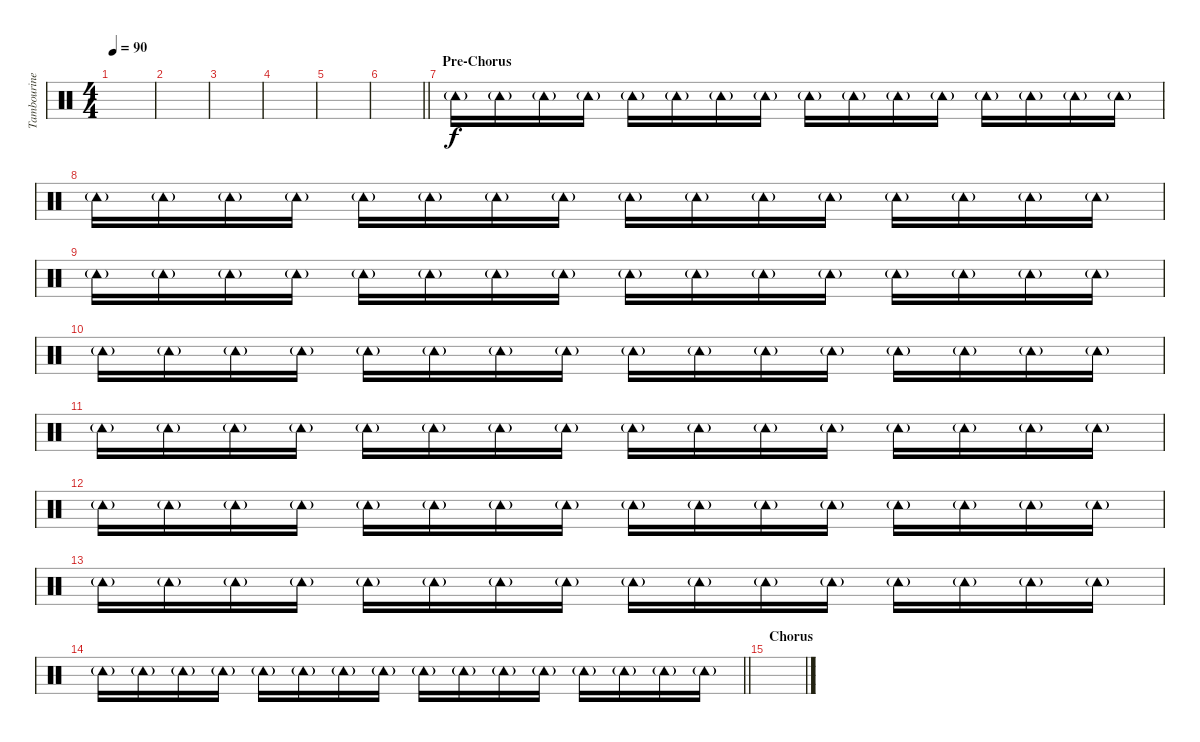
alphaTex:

\track ("Tambourine" "Tambourine") {instrument percussion}
\staff {score}
\articulation defaults
\ts (4 4)
\tempo 90
\clef neutral
\ks c
|
|
|
|
|
\barLineRight lightlight
|
\section ("" "Pre-Chorus")
"Tambourine (hit)"{g}.16 "Tambourine (hit)"{g}.16 "Tambourine (hit)"{g}.16 "Tambourine (hit)"{g}.16 "Tambourine (hit)"{g}.16 "Tambourine (hit)"{g}.16 "Tambourine (hit)"{g}.16 "Tambourine (hit)"{g}.16 "Tambourine (hit)"{g}.16 "Tambourine (hit)"{g}.16 "Tambourine (hit)"{g}.16 "Tambourine (hit)"{g}.16 "Tambourine (hit)"{g}.16 "Tambourine (hit)"{g}.16 "Tambourine (hit)"{g}.16 "Tambourine (hit)"{g}.16 |
"Tambourine (hit)"{g}.16 "Tambourine (hit)"{g}.16 "Tambourine (hit)"{g}.16 "Tambourine (hit)"{g}.16 "Tambourine (hit)"{g}.16 "Tambourine (hit)"{g}.16 "Tambourine (hit)"{g}.16 "Tambourine (hit)"{g}.16 "Tambourine (hit)"{g}.16 "Tambourine (hit)"{g}.16 "Tambourine (hit)"{g}.16 "Tambourine (hit)"{g}.16 "Tambourine (hit)"{g}.16 "Tambourine (hit)"{g}.16 "Tambourine (hit)"{g}.16 "Tambourine (hit)"{g}.16 |
"Tambourine (hit)"{g}.16 "Tambourine (hit)"{g}.16 "Tambourine (hit)"{g}.16 "Tambourine (hit)"{g}.16 "Tambourine (hit)"{g}.16 "Tambourine (hit)"{g}.16 "Tambourine (hit)"{g}.16 "Tambourine (hit)"{g}.16 "Tambourine (hit)"{g}.16 "Tambourine (hit)"{g}.16 "Tambourine (hit)"{g}.16 "Tambourine (hit)"{g}.16 "Tambourine (hit)"{g}.16 "Tambourine (hit)"{g}.16 "Tambourine (hit)"{g}.16 "Tambourine (hit)"{g}.16 |
"Tambourine (hit)"{g}.16 "Tambourine (hit)"{g}.16 "Tambourine (hit)"{g}.16 "Tambourine (hit)"{g}.16 "Tambourine (hit)"{g}.16 "Tambourine (hit)"{g}.16 "Tambourine (hit)"{g}.16 "Tambourine (hit)"{g}.16 "Tambourine (hit)"{g}.16 "Tambourine (hit)"{g}.16 "Tambourine (hit)"{g}.16 "Tambourine (hit)"{g}.16 "Tambourine (hit)"{g}.16 "Tambourine (hit)"{g}.16 "Tambourine (hit)"{g}.16 "Tambourine (hit)"{g}.16 |
"Tambourine (hit)"{g}.16 "Tambourine (hit)"{g}.16 "Tambourine (hit)"{g}.16 "Tambourine (hit)"{g}.16 "Tambourine (hit)"{g}.16 "Tambourine (hit)"{g}.16 "Tambourine (hit)"{g}.16 "Tambourine (hit)"{g}.16 "Tambourine (hit)"{g}.16 "Tambourine (hit)"{g}.16 "Tambourine (hit)"{g}.16 "Tambourine (hit)"{g}.16 "Tambourine (hit)"{g}.16 "Tambourine (hit)"{g}.16 "Tambourine (hit)"{g}.16 "Tambourine (hit)"{g}.16 |
"Tambourine (hit)"{g}.16 "Tambourine (hit)"{g}.16 "Tambourine (hit)"{g}.16 "Tambourine (hit)"{g}.16 "Tambourine (hit)"{g}.16 "Tambourine (hit)"{g}.16 "Tambourine (hit)"{g}.16 "Tambourine (hit)"{g}.16 "Tambourine (hit)"{g}.16 "Tambourine (hit)"{g}.16 "Tambourine (hit)"{g}.16 "Tambourine (hit)"{g}.16 "Tambourine (hit)"{g}.16 "Tambourine (hit)"{g}.16 "Tambourine (hit)"{g}.16 "Tambourine (hit)"{g}.16 |
"Tambourine (hit)"{g}.16 "Tambourine (hit)"{g}.16 "Tambourine (hit)"{g}.16 "Tambourine (hit)"{g}.16 "Tambourine (hit)"{g}.16 "Tambourine (hit)"{g}.16 "Tambourine (hit)"{g}.16 "Tambourine (hit)"{g}.16 "Tambourine (hit)"{g}.16 "Tambourine (hit)"{g}.16 "Tambourine (hit)"{g}.16 "Tambourine (hit)"{g}.16 "Tambourine (hit)"{g}.16 "Tambourine (hit)"{g}.16 "Tambourine (hit)"{g}.16 "Tambourine (hit)"{g}.16 |
\barLineRight lightlight "Tambourine (hit)"{g}.16 "Tambourine (hit)"{g}.16 "Tambourine (hit)"{g}.16 "Tambourine (hit)"{g}.16 "Tambourine (hit)"{g}.16 "Tambourine (hit)"{g}.16 "Tambourine (hit)"{g}.16 "Tambourine (hit)"{g}.16 "Tambourine (hit)"{g}.16 "Tambourine (hit)"{g}.16 "Tambourine (hit)"{g}.16 "Tambourine (hit)"{g}.16 "Tambourine (hit)"{g}.16 "Tambourine (hit)"{g}.16 "Tambourine (hit)"{g}.16 "Tambourine (hit)"{g}.16
|
\section ("" "Chorus")
